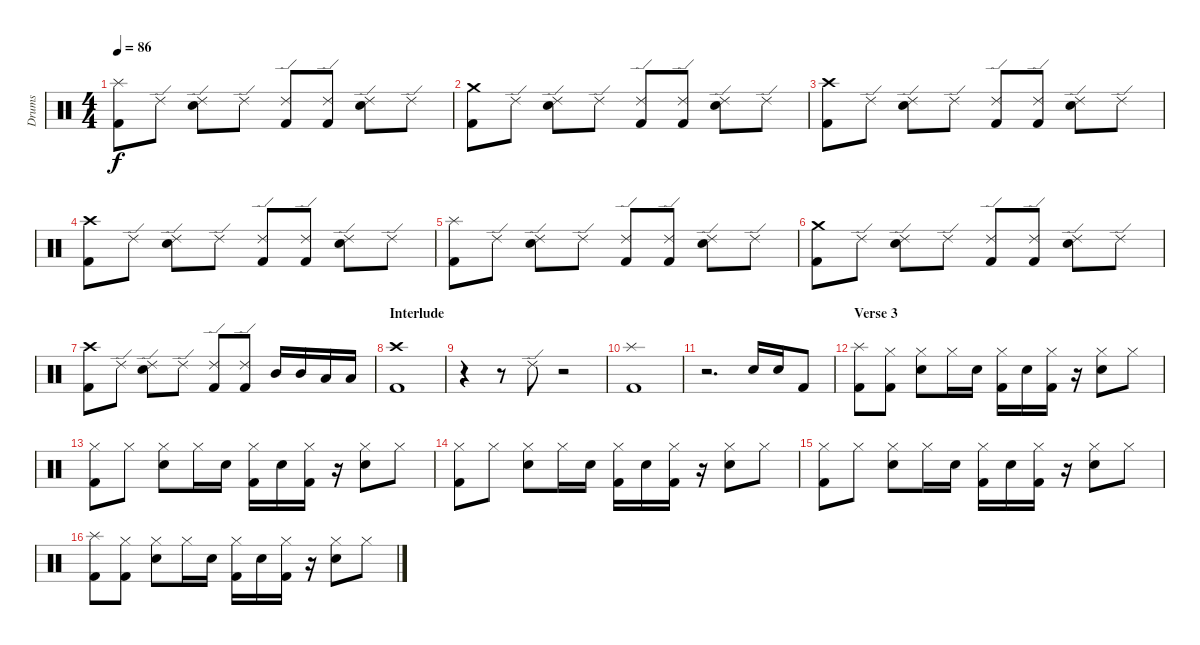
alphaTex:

\track ("Drums" "Drums") {instrument percussion}
\staff {score}
\articulation defaults
\ts (4 4)
\tempo 86
\clef neutral
\ks c
("Splash (hit)" "Kick (hit) 2").8{dy f} "Ride (edge) 2".8 ("Ride (edge) 2" "Snare (hit) 2").8 "Ride (edge) 2".8 ("Ride (edge) 2" "Kick (hit) 2").8 ("Ride (edge) 2" "Kick (hit) 2").8 ("Ride (edge) 2" "Snare (hit) 2").8 "Ride (edge) 2".8 |
("Crash medium (hit)" "Kick (hit) 2").8 "Ride (edge) 2".8 ("Ride (edge) 2" "Snare (hit) 2").8 "Ride (edge) 2".8 ("Ride (edge) 2" "Kick (hit) 2").8 ("Ride (edge) 2" "Kick (hit) 2").8 ("Ride (edge) 2" "Snare (hit) 2").8 "Ride (edge) 2".8 |
("Crash high (hit)" "Kick (hit) 2").8 "Ride (edge) 2".8 ("Ride (edge) 2" "Snare (hit) 2").8 "Ride (edge) 2".8 ("Ride (edge) 2" "Kick (hit) 2").8 ("Ride (edge) 2" "Kick (hit) 2").8 ("Ride (edge) 2" "Snare (hit) 2").8 "Ride (edge) 2".8 |
("Crash high (hit)" "Kick (hit) 2").8 "Ride (edge) 2".8 ("Ride (edge) 2" "Snare (hit) 2").8 "Ride (edge) 2".8 ("Ride (edge) 2" "Kick (hit) 2").8 ("Ride (edge) 2" "Kick (hit) 2").8 ("Ride (edge) 2" "Snare (hit) 2").8 "Ride (edge) 2".8 |
("Splash (hit)" "Kick (hit) 2").8 "Ride (edge) 2".8 ("Ride (edge) 2" "Snare (hit) 2").8 "Ride (edge) 2".8 ("Ride (edge) 2" "Kick (hit) 2").8 ("Ride (edge) 2" "Kick (hit) 2").8 ("Ride (edge) 2" "Snare (hit) 2").8 "Ride (edge) 2".8 |
("Crash medium (hit)" "Kick (hit) 2").8 "Ride (edge) 2".8 ("Ride (edge) 2" "Snare (hit) 2").8 "Ride (edge) 2".8 ("Ride (edge) 2" "Kick (hit) 2").8 ("Ride (edge) 2" "Kick (hit) 2").8 ("Ride (edge) 2" "Snare (hit) 2").8 "Ride (edge) 2".8 |
("Crash high (hit)" "Kick (hit) 2").8 "Ride (edge) 2".8 ("Ride (edge) 2" "Snare (hit) 2").8 "Ride (edge) 2".8 ("Ride (edge) 2" "Kick (hit) 2").8 ("Ride (edge) 2" "Kick (hit) 2").8 "Mid Tom (hit)".16 "Mid Tom (hit)".16 "Low Tom (hit)".16 "Low Tom (hit)".16 |
\section ("" "Interlude")
("Crash high (hit)" "Kick (hit) 2").1 |
r.4 r.8 "Ride (edge) 2".8 r.2 |
("Splash (hit)" "Kick (hit) 2").1 |
r.2{d} "Snare (hit) 2".16 "Snare (hit) 2".16 "Kick (hit) 2".8 |
\section ("" "Verse 3")
("Splash (hit)" "Kick (hit) 2").8 ("Hi-Hat (closed)" "Kick (hit) 2").8 ("Hi-Hat (closed)" "Snare (hit) 2").8 "Hi-Hat (closed)".16 "Snare (hit) 2".16 ("Hi-Hat (closed)" "Kick (hit) 2").16 "Snare (hit) 2".16 ("Hi-Hat (closed)" "Kick (hit) 2").16 r.16 ("Hi-Hat (closed)" "Snare (hit) 2").8 "Hi-Hat (closed)".8 |
("Hi-Hat (closed)" "Kick (hit) 2").8 "Hi-Hat (closed)".8 ("Hi-Hat (closed)" "Snare (hit) 2").8 "Hi-Hat (closed)".16 "Snare (hit) 2".16 ("Hi-Hat (closed)" "Kick (hit) 2").16 "Snare (hit) 2".16 ("Hi-Hat (closed)" "Kick (hit) 2").16 r.16 ("Hi-Hat (closed)" "Snare (hit) 2").8 "Hi-Hat (closed)".8 |
("Hi-Hat (closed)" "Kick (hit) 2").8 "Hi-Hat (closed)".8 ("Hi-Hat (closed)" "Snare (hit) 2").8 "Hi-Hat (closed)".16 "Snare (hit) 2".16 ("Hi-Hat (closed)" "Kick (hit) 2").16 "Snare (hit) 2".16 ("Hi-Hat (closed)" "Kick (hit) 2").16 r.16 ("Hi-Hat (closed)" "Snare (hit) 2").8 "Hi-Hat (closed)".8 |
("Hi-Hat (closed)" "Kick (hit) 2").8 "Hi-Hat (closed)".8 ("Hi-Hat (closed)" "Snare (hit) 2").8 "Hi-Hat (closed)".16 "Snare (hit) 2".16 ("Hi-Hat (closed)" "Kick (hit) 2").16 "Snare (hit) 2".16 ("Hi-Hat (closed)" "Kick (hit) 2").16 r.16 ("Hi-Hat (closed)" "Snare (hit) 2").8 "Hi-Hat (closed)".8 |
("Splash (hit)" "Kick (hit) 2").8 ("Hi-Hat (closed)" "Kick (hit) 2").8 ("Hi-Hat (closed)" "Snare (hit) 2").8 "Hi-Hat (closed)".16 "Snare (hit) 2".16 ("Hi-Hat (closed)" "Kick (hit) 2").16 "Snare (hit) 2".16 ("Hi-Hat (closed)" "Kick (hit) 2").16 r.16 ("Hi-Hat (closed)" "Snare (hit) 2").8 "Hi-Hat (closed)".8
